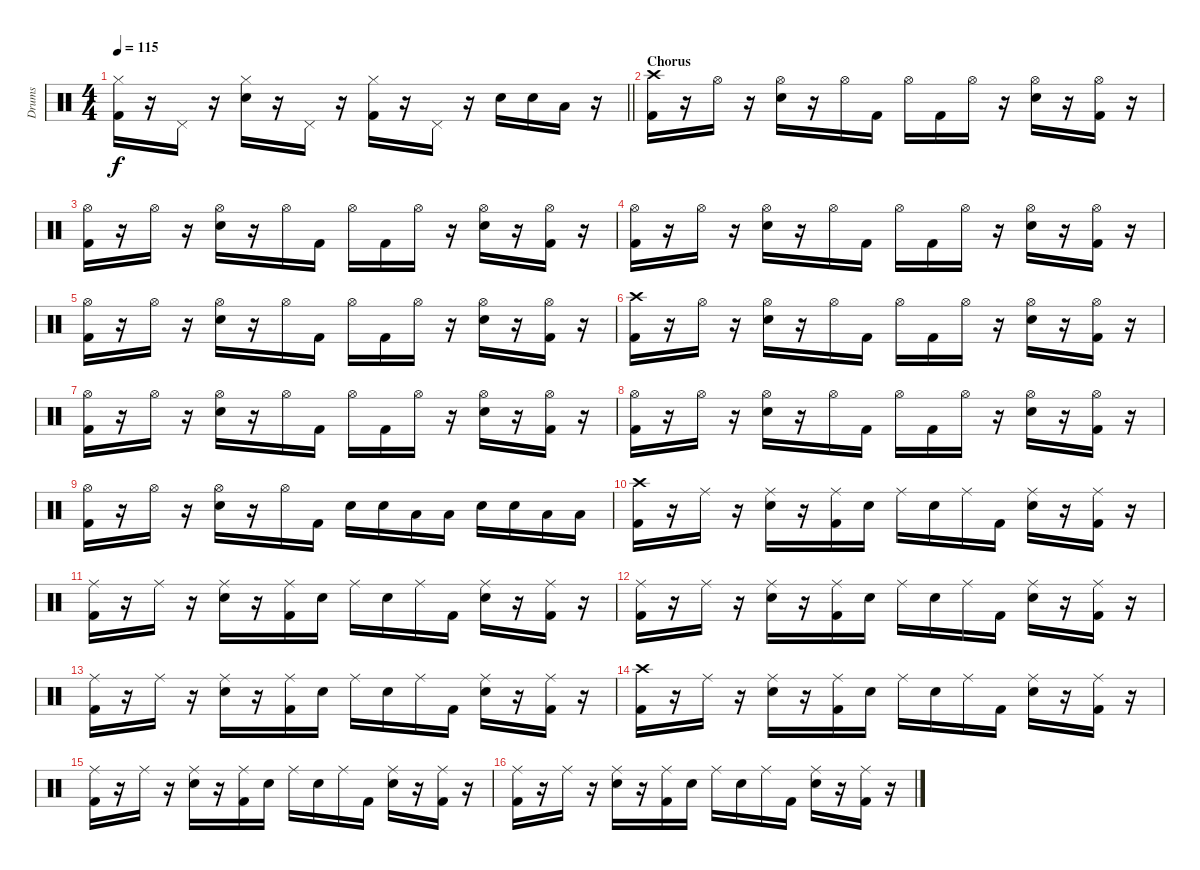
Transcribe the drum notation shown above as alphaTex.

\track ("Drums" "Drums") {instrument percussion}
\staff {score}
\articulation defaults
\ts (4 4)
\tempo 115
\clef neutral
\barLineRight lightlight
\ks c
("Hi-Hat (closed)" "Kick (hit) 2").16{dy f} r.16 "Pedal Hi-Hat (hit)".16 r.16 ("Hi-Hat (closed)" "Snare (hit) 2").16 r.16 "Pedal Hi-Hat (hit)".16 r.16 ("Hi-Hat (closed)" "Kick (hit) 2").16 r.16 "Pedal Hi-Hat (hit)".16 r.16 "Snare (hit) 2".16 "Snare (hit) 2".16 "Low Tom (hit)".16 r.16 |
\section ("" "Chorus")
("Crash high (hit)" "Kick (hit) 2").16 r.16 "Hi-Hat (open)".16 r.16 ("Hi-Hat (open)" "Snare (hit) 2").16 r.16 "Hi-Hat (open)".16 "Kick (hit) 2".16 "Hi-Hat (open)".16 "Kick (hit) 2".16 "Hi-Hat (open)".16 r.16 ("Hi-Hat (open)" "Snare (hit) 2").16 r.16 ("Hi-Hat (open)" "Kick (hit) 2").16 r.16 |
("Hi-Hat (open)" "Kick (hit) 2").16 r.16 "Hi-Hat (open)".16 r.16 ("Hi-Hat (open)" "Snare (hit) 2").16 r.16 "Hi-Hat (open)".16 "Kick (hit) 2".16 "Hi-Hat (open)".16 "Kick (hit) 2".16 "Hi-Hat (open)".16 r.16 ("Hi-Hat (open)" "Snare (hit) 2").16 r.16 ("Hi-Hat (open)" "Kick (hit) 2").16 r.16 |
("Hi-Hat (open)" "Kick (hit) 2").16 r.16 "Hi-Hat (open)".16 r.16 ("Hi-Hat (open)" "Snare (hit) 2").16 r.16 "Hi-Hat (open)".16 "Kick (hit) 2".16 "Hi-Hat (open)".16 "Kick (hit) 2".16 "Hi-Hat (open)".16 r.16 ("Hi-Hat (open)" "Snare (hit) 2").16 r.16 ("Hi-Hat (open)" "Kick (hit) 2").16 r.16 |
("Hi-Hat (open)" "Kick (hit) 2").16 r.16 "Hi-Hat (open)".16 r.16 ("Hi-Hat (open)" "Snare (hit) 2").16 r.16 "Hi-Hat (open)".16 "Kick (hit) 2".16 "Hi-Hat (open)".16 "Kick (hit) 2".16 "Hi-Hat (open)".16 r.16 ("Hi-Hat (open)" "Snare (hit) 2").16 r.16 ("Hi-Hat (open)" "Kick (hit) 2").16 r.16 |
("Crash high (hit)" "Kick (hit) 2").16 r.16 "Hi-Hat (open)".16 r.16 ("Hi-Hat (open)" "Snare (hit) 2").16 r.16 "Hi-Hat (open)".16 "Kick (hit) 2".16 "Hi-Hat (open)".16 "Kick (hit) 2".16 "Hi-Hat (open)".16 r.16 ("Hi-Hat (open)" "Snare (hit) 2").16 r.16 ("Hi-Hat (open)" "Kick (hit) 2").16 r.16 |
("Hi-Hat (open)" "Kick (hit) 2").16 r.16 "Hi-Hat (open)".16 r.16 ("Hi-Hat (open)" "Snare (hit) 2").16 r.16 "Hi-Hat (open)".16 "Kick (hit) 2".16 "Hi-Hat (open)".16 "Kick (hit) 2".16 "Hi-Hat (open)".16 r.16 ("Hi-Hat (open)" "Snare (hit) 2").16 r.16 ("Hi-Hat (open)" "Kick (hit) 2").16 r.16 |
("Hi-Hat (open)" "Kick (hit) 2").16 r.16 "Hi-Hat (open)".16 r.16 ("Hi-Hat (open)" "Snare (hit) 2").16 r.16 "Hi-Hat (open)".16 "Kick (hit) 2".16 "Hi-Hat (open)".16 "Kick (hit) 2".16 "Hi-Hat (open)".16 r.16 ("Hi-Hat (open)" "Snare (hit) 2").16 r.16 ("Hi-Hat (open)" "Kick (hit) 2").16 r.16 |
("Hi-Hat (open)" "Kick (hit) 2").16 r.16 "Hi-Hat (open)".16 r.16 ("Hi-Hat (open)" "Snare (hit) 2").16 r.16 "Hi-Hat (open)".16 "Kick (hit) 2".16 "Snare (hit) 2".16 "Snare (hit) 2".16 "Low Tom (hit)".16 "Low Tom (hit)".16 "Snare (hit) 2".16 "Snare (hit) 2".16 "Low Tom (hit)".16 "Low Tom (hit)".16 |
("Crash high (hit)" "Kick (hit) 2").16 r.16 "Ride (middle)".16 r.16 ("Ride (middle)" "Snare (hit) 2").16 r.16 ("Ride (middle)" "Kick (hit) 2").16 "Snare (hit) 2".16 "Ride (middle)".16 "Snare (hit) 2".16 "Ride (middle)".16 "Kick (hit) 2".16 ("Ride (middle)" "Snare (hit) 2").16 r.16 ("Ride (middle)" "Kick (hit) 2").16 r.16 |
("Ride (middle)" "Kick (hit) 2").16 r.16 "Ride (middle)".16 r.16 ("Ride (middle)" "Snare (hit) 2").16 r.16 ("Ride (middle)" "Kick (hit) 2").16 "Snare (hit) 2".16 "Ride (middle)".16 "Snare (hit) 2".16 "Ride (middle)".16 "Kick (hit) 2".16 ("Ride (middle)" "Snare (hit) 2").16 r.16 ("Ride (middle)" "Kick (hit) 2").16 r.16 |
("Ride (middle)" "Kick (hit) 2").16 r.16 "Ride (middle)".16 r.16 ("Ride (middle)" "Snare (hit) 2").16 r.16 ("Ride (middle)" "Kick (hit) 2").16 "Snare (hit) 2".16 "Ride (middle)".16 "Snare (hit) 2".16 "Ride (middle)".16 "Kick (hit) 2".16 ("Ride (middle)" "Snare (hit) 2").16 r.16 ("Ride (middle)" "Kick (hit) 2").16 r.16 |
("Ride (middle)" "Kick (hit) 2").16 r.16 "Ride (middle)".16 r.16 ("Ride (middle)" "Snare (hit) 2").16 r.16 ("Ride (middle)" "Kick (hit) 2").16 "Snare (hit) 2".16 "Ride (middle)".16 "Snare (hit) 2".16 "Ride (middle)".16 "Kick (hit) 2".16 ("Ride (middle)" "Snare (hit) 2").16 r.16 ("Ride (middle)" "Kick (hit) 2").16 r.16 |
("Crash high (hit)" "Kick (hit) 2").16 r.16 "Ride (middle)".16 r.16 ("Ride (middle)" "Snare (hit) 2").16 r.16 ("Ride (middle)" "Kick (hit) 2").16 "Snare (hit) 2".16 "Ride (middle)".16 "Snare (hit) 2".16 "Ride (middle)".16 "Kick (hit) 2".16 ("Ride (middle)" "Snare (hit) 2").16 r.16 ("Ride (middle)" "Kick (hit) 2").16 r.16 |
("Ride (middle)" "Kick (hit) 2").16 r.16 "Ride (middle)".16 r.16 ("Ride (middle)" "Snare (hit) 2").16 r.16 ("Ride (middle)" "Kick (hit) 2").16 "Snare (hit) 2".16 "Ride (middle)".16 "Snare (hit) 2".16 "Ride (middle)".16 "Kick (hit) 2".16 ("Ride (middle)" "Snare (hit) 2").16 r.16 ("Ride (middle)" "Kick (hit) 2").16 r.16 |
("Ride (middle)" "Kick (hit) 2").16 r.16 "Ride (middle)".16 r.16 ("Ride (middle)" "Snare (hit) 2").16 r.16 ("Ride (middle)" "Kick (hit) 2").16 "Snare (hit) 2".16 "Ride (middle)".16 "Snare (hit) 2".16 "Ride (middle)".16 "Kick (hit) 2".16 ("Ride (middle)" "Snare (hit) 2").16 r.16 ("Ride (middle)" "Kick (hit) 2").16 r.16
